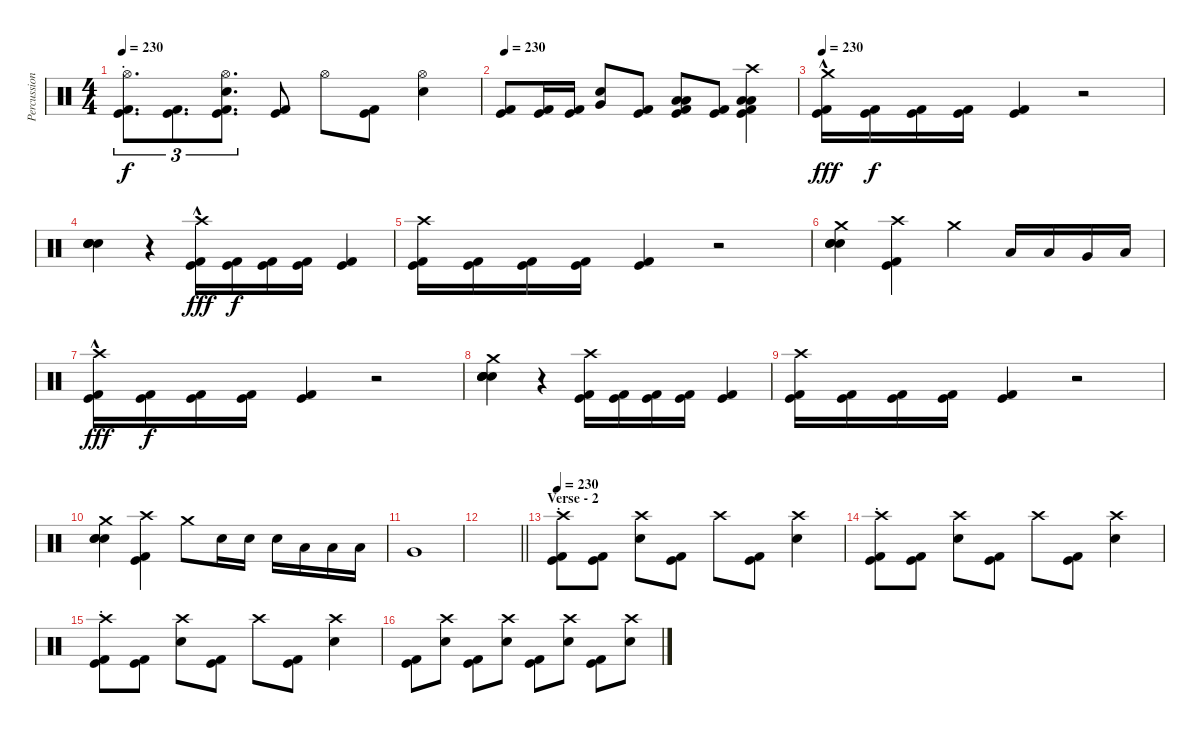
\track ("Percussion" "Percussion") {instrument percussion}
\staff {score}
\articulation defaults
\ts (4 4)
\tempo 230
\clef neutral
\ks c
("Hi-Hat (open)" "Kick (hit)" "Kick (hit) 2"{st}).8{d tu (3 2) dy f} ("Kick (hit)" "Kick (hit) 2").8{d tu (3 2)} ("Hi-Hat (open)" "Electric Snare (hit)" "Kick (hit)" "Kick (hit) 2").8{d tu (3 2)} ("Kick (hit)" "Kick (hit) 2").8 "Hi-Hat (open)".8 ("Kick (hit)" "Kick (hit) 2").8 ("Hi-Hat (open)" "Electric Snare (hit)").4 |
\tempo 230
("Kick (hit)" "Kick (hit) 2").8 ("Kick (hit)" "Kick (hit) 2").16 ("Kick (hit)" "Kick (hit) 2").16 ("Electric Snare (hit)" "Very Low Tom (hit)").8 ("Kick (hit)" "Kick (hit) 2").8 ("Low Floor Tom (hit)" "Low Tom (hit)" "Kick (hit)" "Kick (hit) 2").8 ("Kick (hit)" "Kick (hit) 2").8 ("Crash high (hit)" "Low Tom (hit)" "Low Floor Tom (hit)" "Kick (hit)" "Kick (hit) 2").4 |
\tempo 230
("Crash medium (hit)"{hac} "Kick (hit)" "Kick (hit) 2").16{dy fff} ("Kick (hit)" "Kick (hit) 2").16{dy f} ("Kick (hit)" "Kick (hit) 2").16 ("Kick (hit)" "Kick (hit) 2").16 ("Kick (hit)" "Kick (hit) 2").4 r.2 |
("Electric Snare (hit)" "Electric Snare (hit)" "Snare (hit) 2" "Snare (hit) 2").4 r.4 ("Crash high (hit)"{hac} "Kick (hit)" "Kick (hit) 2").16{dy fff} ("Kick (hit)" "Kick (hit) 2").16{dy f} ("Kick (hit)" "Kick (hit) 2").16 ("Kick (hit)" "Kick (hit) 2").16 ("Kick (hit)" "Kick (hit) 2").4 |
("Crash high (hit)" "Kick (hit)" "Kick (hit) 2").16 ("Kick (hit)" "Kick (hit) 2").16 ("Kick (hit)" "Kick (hit) 2").16 ("Kick (hit)" "Kick (hit) 2").16 ("Kick (hit)" "Kick (hit) 2").4 r.2 |
("Crash medium (hit)" "Electric Snare (hit)" "Electric Snare (hit)" "Snare (hit) 2").4 ("Crash high (hit)" "Kick (hit)" "Kick (hit) 2").4 "Crash medium (hit)".4 "Low Tom (hit)".16 "Low Tom (hit)".16 "Very Low Tom (hit)".16 "Low Floor Tom (hit)".16 |
("Crash high (hit)"{hac} "Kick (hit)" "Kick (hit) 2").16{dy fff} ("Kick (hit)" "Kick (hit) 2").16{dy f} ("Kick (hit)" "Kick (hit) 2").16 ("Kick (hit)" "Kick (hit) 2").16 ("Kick (hit)" "Kick (hit) 2").4 r.2 |
("Crash medium (hit)" "Electric Snare (hit)" "Electric Snare (hit)" "Snare (hit) 2" "Snare (hit) 2").4 r.4 ("Crash high (hit)" "Kick (hit)" "Kick (hit) 2").16 ("Kick (hit)" "Kick (hit) 2").16 ("Kick (hit)" "Kick (hit) 2").16 ("Kick (hit)" "Kick (hit) 2").16 ("Kick (hit)" "Kick (hit) 2").4 |
("Crash high (hit)" "Kick (hit)" "Kick (hit) 2").16 ("Kick (hit)" "Kick (hit) 2").16 ("Kick (hit)" "Kick (hit) 2").16 ("Kick (hit)" "Kick (hit) 2").16 ("Kick (hit)" "Kick (hit) 2").4 r.2 |
("Crash medium (hit)" "Electric Snare (hit)" "Electric Snare (hit)" "Snare (hit) 2").4 ("Crash high (hit)" "Kick (hit)" "Kick (hit) 2").4 "Crash medium (hit)".8 "Electric Snare (hit)".16 "Electric Snare (hit)".16 "Electric Snare (hit)".16 "Low Tom (hit)".16 "Low Tom (hit)".16 "Low Tom (hit)".16 |
"Very Low Tom (hit)".1 |
\barLineRight lightlight
|
\section ("" "Verse - 2")
\tempo 230
("Crash high (hit)" "Kick (hit)" "Kick (hit) 2"{st}).8 ("Kick (hit)" "Kick (hit) 2").8 ("Crash high (hit)" "Electric Snare (hit)").8 ("Kick (hit)" "Kick (hit) 2").8 "Crash high (hit)".8 ("Kick (hit)" "Kick (hit) 2").8 ("Crash high (hit)" "Electric Snare (hit)").4 |
("Crash high (hit)" "Kick (hit)" "Kick (hit) 2"{st}).8 ("Kick (hit)" "Kick (hit) 2").8 ("Crash high (hit)" "Electric Snare (hit)").8 ("Kick (hit)" "Kick (hit) 2").8 "Crash high (hit)".8 ("Kick (hit)" "Kick (hit) 2").8 ("Crash high (hit)" "Electric Snare (hit)").4 |
("Crash high (hit)" "Kick (hit)" "Kick (hit) 2"{st}).8 ("Kick (hit)" "Kick (hit) 2").8 ("Crash high (hit)" "Electric Snare (hit)").8 ("Kick (hit)" "Kick (hit) 2").8 "Crash high (hit)".8 ("Kick (hit)" "Kick (hit) 2").8 ("Crash high (hit)" "Electric Snare (hit)").4 |
("Kick (hit)" "Kick (hit) 2").8 ("Crash high (hit)" "Electric Snare (hit)").8 ("Kick (hit)" "Kick (hit) 2").8 ("Crash high (hit)" "Electric Snare (hit)").8 ("Kick (hit)" "Kick (hit) 2").8 ("Crash high (hit)" "Electric Snare (hit)").8 ("Kick (hit)" "Kick (hit) 2").8 ("Crash high (hit)" "Electric Snare (hit)").8
